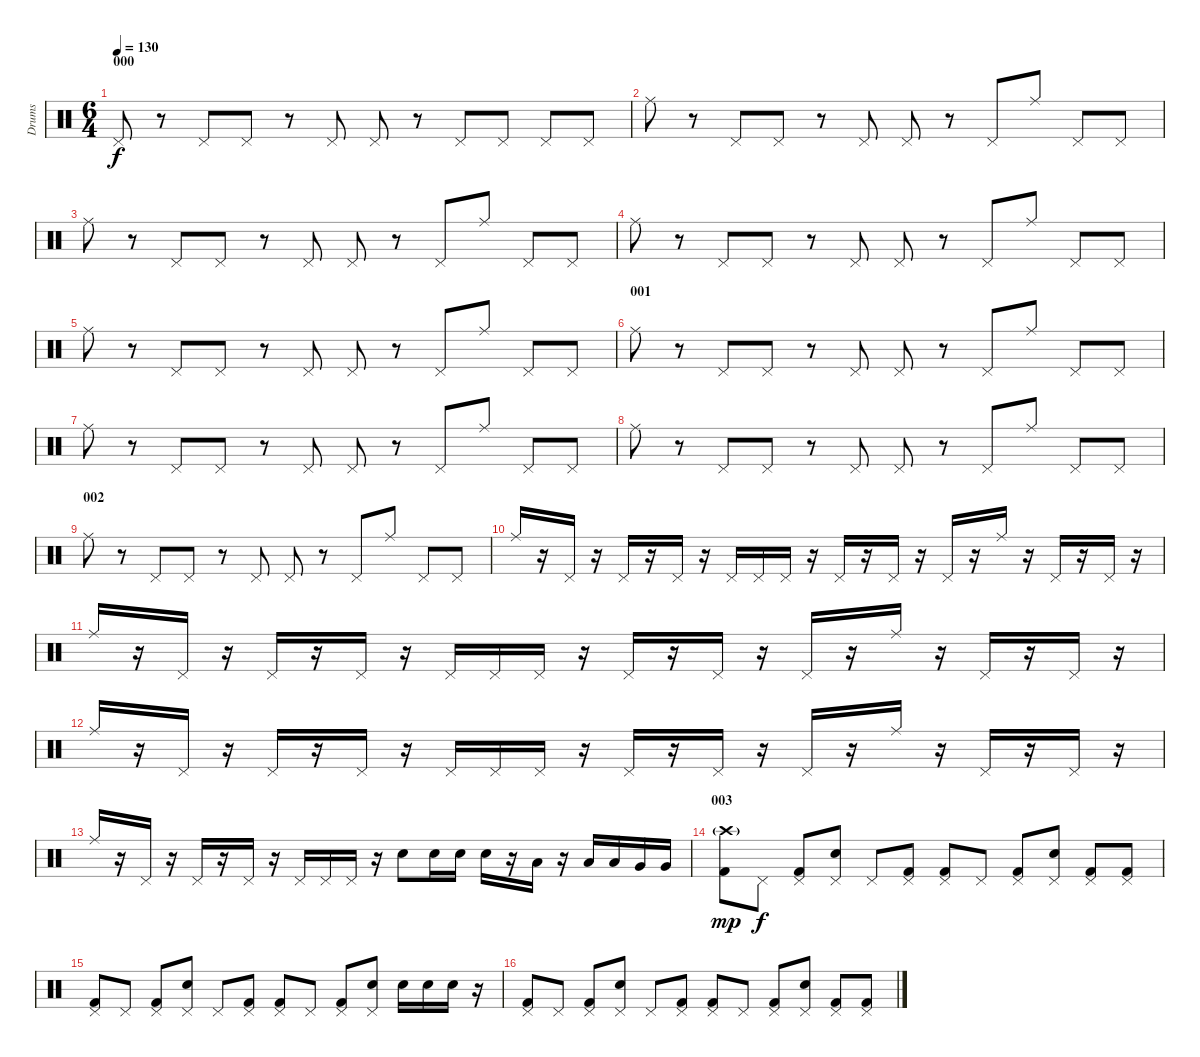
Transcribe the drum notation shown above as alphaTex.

\track ("Drums" "Drums") {instrument percussion}
\staff {score}
\articulation defaults
\ts (6 4)
\section ("" "000")
\tempo 130
\clef neutral
\ks c "Pedal Hi-Hat (hit)".8{dy f}
r.8 "Pedal Hi-Hat (hit)".8 "Pedal Hi-Hat (hit)".8 r.8 "Pedal Hi-Hat (hit)".8 "Pedal Hi-Hat (hit)".8 r.8 "Pedal Hi-Hat (hit)".8 "Pedal Hi-Hat (hit)".8 "Pedal Hi-Hat (hit)".8 "Pedal Hi-Hat (hit)".8 |
"Ride (middle)".8 r.8 "Pedal Hi-Hat (hit)".8 "Pedal Hi-Hat (hit)".8 r.8 "Pedal Hi-Hat (hit)".8 "Pedal Hi-Hat (hit)".8 r.8 "Pedal Hi-Hat (hit)".8 "Ride (middle)".8 "Pedal Hi-Hat (hit)".8 "Pedal Hi-Hat (hit)".8 |
"Ride (middle)".8 r.8 "Pedal Hi-Hat (hit)".8 "Pedal Hi-Hat (hit)".8 r.8 "Pedal Hi-Hat (hit)".8 "Pedal Hi-Hat (hit)".8 r.8 "Pedal Hi-Hat (hit)".8 "Ride (middle)".8 "Pedal Hi-Hat (hit)".8 "Pedal Hi-Hat (hit)".8 |
"Ride (middle)".8 r.8 "Pedal Hi-Hat (hit)".8 "Pedal Hi-Hat (hit)".8 r.8 "Pedal Hi-Hat (hit)".8 "Pedal Hi-Hat (hit)".8 r.8 "Pedal Hi-Hat (hit)".8 "Ride (middle)".8 "Pedal Hi-Hat (hit)".8 "Pedal Hi-Hat (hit)".8 |
"Ride (middle)".8 r.8 "Pedal Hi-Hat (hit)".8 "Pedal Hi-Hat (hit)".8 r.8 "Pedal Hi-Hat (hit)".8 "Pedal Hi-Hat (hit)".8 r.8 "Pedal Hi-Hat (hit)".8 "Ride (middle)".8 "Pedal Hi-Hat (hit)".8 "Pedal Hi-Hat (hit)".8 |
\section ("" "001")
"Ride (middle)".8 r.8 "Pedal Hi-Hat (hit)".8 "Pedal Hi-Hat (hit)".8 r.8 "Pedal Hi-Hat (hit)".8 "Pedal Hi-Hat (hit)".8 r.8 "Pedal Hi-Hat (hit)".8 "Ride (middle)".8 "Pedal Hi-Hat (hit)".8 "Pedal Hi-Hat (hit)".8 |
"Ride (middle)".8 r.8 "Pedal Hi-Hat (hit)".8 "Pedal Hi-Hat (hit)".8 r.8 "Pedal Hi-Hat (hit)".8 "Pedal Hi-Hat (hit)".8 r.8 "Pedal Hi-Hat (hit)".8 "Ride (middle)".8 "Pedal Hi-Hat (hit)".8 "Pedal Hi-Hat (hit)".8 |
"Ride (middle)".8 r.8 "Pedal Hi-Hat (hit)".8 "Pedal Hi-Hat (hit)".8 r.8 "Pedal Hi-Hat (hit)".8 "Pedal Hi-Hat (hit)".8 r.8 "Pedal Hi-Hat (hit)".8 "Ride (middle)".8 "Pedal Hi-Hat (hit)".8 "Pedal Hi-Hat (hit)".8 |
\section ("" "002")
"Ride (middle)".8 r.8 "Pedal Hi-Hat (hit)".8 "Pedal Hi-Hat (hit)".8 r.8 "Pedal Hi-Hat (hit)".8 "Pedal Hi-Hat (hit)".8 r.8 "Pedal Hi-Hat (hit)".8 "Ride (middle)".8 "Pedal Hi-Hat (hit)".8 "Pedal Hi-Hat (hit)".8 |
"Ride (middle)".16 r.16 "Pedal Hi-Hat (hit)".16 r.16 "Pedal Hi-Hat (hit)".16 r.16 "Pedal Hi-Hat (hit)".16 r.16 "Pedal Hi-Hat (hit)".16 "Pedal Hi-Hat (hit)".16 "Pedal Hi-Hat (hit)".16 r.16 "Pedal Hi-Hat (hit)".16 r.16 "Pedal Hi-Hat (hit)".16 r.16 "Pedal Hi-Hat (hit)".16 r.16 "Ride (middle)".16 r.16 "Pedal Hi-Hat (hit)".16 r.16 "Pedal Hi-Hat (hit)".16 r.16 |
"Ride (middle)".16 r.16 "Pedal Hi-Hat (hit)".16 r.16 "Pedal Hi-Hat (hit)".16 r.16 "Pedal Hi-Hat (hit)".16 r.16 "Pedal Hi-Hat (hit)".16 "Pedal Hi-Hat (hit)".16 "Pedal Hi-Hat (hit)".16 r.16 "Pedal Hi-Hat (hit)".16 r.16 "Pedal Hi-Hat (hit)".16 r.16 "Pedal Hi-Hat (hit)".16 r.16 "Ride (middle)".16 r.16 "Pedal Hi-Hat (hit)".16 r.16 "Pedal Hi-Hat (hit)".16 r.16 |
"Ride (middle)".16 r.16 "Pedal Hi-Hat (hit)".16 r.16 "Pedal Hi-Hat (hit)".16 r.16 "Pedal Hi-Hat (hit)".16 r.16 "Pedal Hi-Hat (hit)".16 "Pedal Hi-Hat (hit)".16 "Pedal Hi-Hat (hit)".16 r.16 "Pedal Hi-Hat (hit)".16 r.16 "Pedal Hi-Hat (hit)".16 r.16 "Pedal Hi-Hat (hit)".16 r.16 "Ride (middle)".16 r.16 "Pedal Hi-Hat (hit)".16 r.16 "Pedal Hi-Hat (hit)".16 r.16 |
"Ride (middle)".16 r.16 "Pedal Hi-Hat (hit)".16 r.16 "Pedal Hi-Hat (hit)".16 r.16 "Pedal Hi-Hat (hit)".16 r.16 "Pedal Hi-Hat (hit)".16 "Pedal Hi-Hat (hit)".16 "Pedal Hi-Hat (hit)".16 r.16 "Electric Snare (hit)".8 "Electric Snare (hit)".16 "Electric Snare (hit)".16 "Electric Snare (hit)".16 r.16 "Low Tom (hit)".16 r.16 "Low Tom (hit)".16 "Low Tom (hit)".16 "Very Low Tom (hit)".16 "Very Low Tom (hit)".16 |
\section ("" "003")
("Kick (hit) 2" "Crash high (hit)"{g}).8{dy mp} "Pedal Hi-Hat (hit)".8{dy f} ("Kick (hit) 2" "Pedal Hi-Hat (hit)").8 ("Electric Snare (hit)" "Pedal Hi-Hat (hit)").8 "Pedal Hi-Hat (hit)".8 ("Kick (hit) 2" "Pedal Hi-Hat (hit)").8 ("Kick (hit) 2" "Pedal Hi-Hat (hit)").8 "Pedal Hi-Hat (hit)".8 ("Kick (hit) 2" "Pedal Hi-Hat (hit)").8 ("Electric Snare (hit)" "Pedal Hi-Hat (hit)").8 ("Kick (hit) 2" "Pedal Hi-Hat (hit)").8 ("Kick (hit) 2" "Pedal Hi-Hat (hit)").8 |
("Kick (hit) 2" "Pedal Hi-Hat (hit)").8 "Pedal Hi-Hat (hit)".8 ("Kick (hit) 2" "Pedal Hi-Hat (hit)").8 ("Electric Snare (hit)" "Pedal Hi-Hat (hit)").8 "Pedal Hi-Hat (hit)".8 ("Kick (hit) 2" "Pedal Hi-Hat (hit)").8 ("Kick (hit) 2" "Pedal Hi-Hat (hit)").8 "Pedal Hi-Hat (hit)".8 ("Kick (hit) 2" "Pedal Hi-Hat (hit)").8 ("Electric Snare (hit)" "Pedal Hi-Hat (hit)").8 "Electric Snare (hit)".16 "Electric Snare (hit)".16 "Electric Snare (hit)".16 r.16 |
("Kick (hit) 2" "Pedal Hi-Hat (hit)").8 "Pedal Hi-Hat (hit)".8 ("Kick (hit) 2" "Pedal Hi-Hat (hit)").8 ("Electric Snare (hit)" "Pedal Hi-Hat (hit)").8 "Pedal Hi-Hat (hit)".8 ("Kick (hit) 2" "Pedal Hi-Hat (hit)").8 ("Kick (hit) 2" "Pedal Hi-Hat (hit)").8 "Pedal Hi-Hat (hit)".8 ("Kick (hit) 2" "Pedal Hi-Hat (hit)").8 ("Electric Snare (hit)" "Pedal Hi-Hat (hit)").8 ("Kick (hit) 2" "Pedal Hi-Hat (hit)").8 ("Kick (hit) 2" "Pedal Hi-Hat (hit)").8
